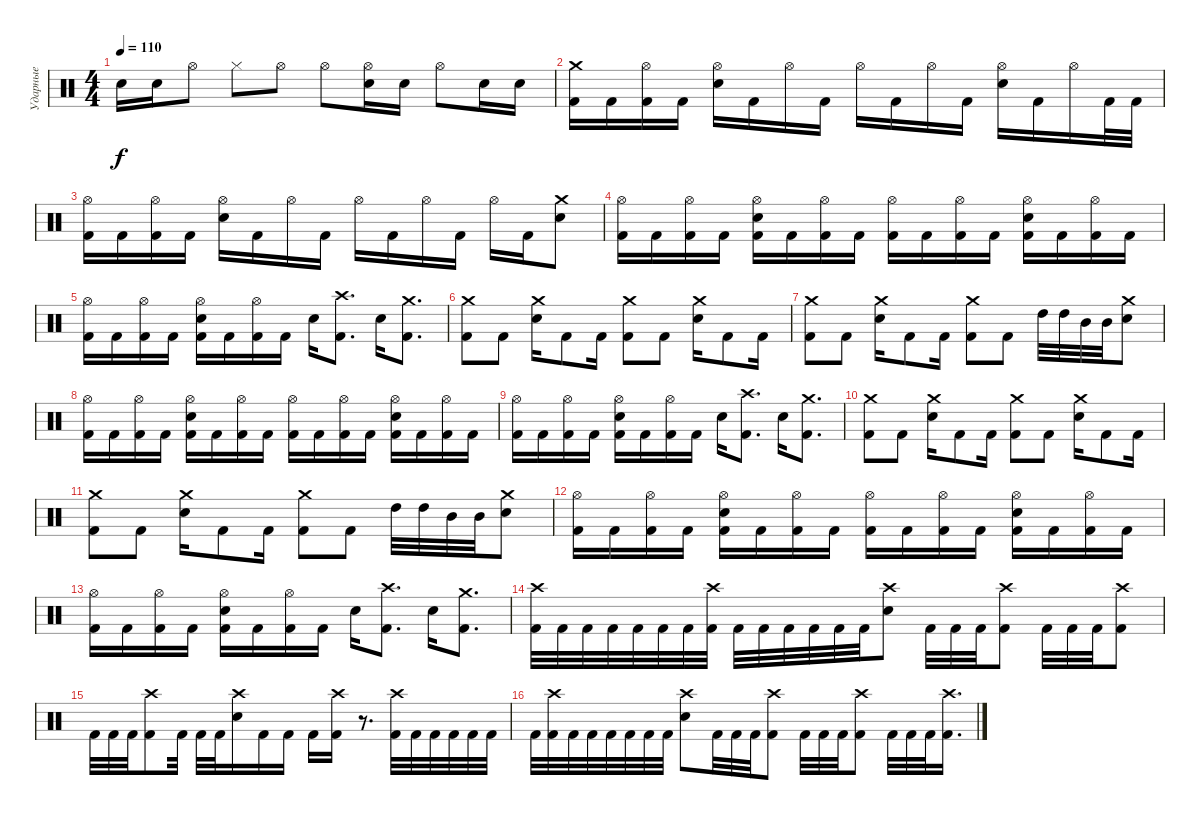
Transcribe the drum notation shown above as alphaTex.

\track ("Ударные" "Ударные") {instrument percussion}
\staff {score}
\articulation defaults
\ts (4 4)
\tempo 110
\clef neutral
\ks c "Electric Snare (hit)".16{dy f} "Electric Snare (hit)".16 "Hi-Hat (open)".8 "Hi-Hat (closed)".8 "Hi-Hat (open)".8 "Hi-Hat (open)".8
("Hi-Hat (open)" "Electric Snare (hit)").16 "Electric Snare (hit)".16 "Hi-Hat (open)".8 "Electric Snare (hit)".16 "Electric Snare (hit)".16 |
("Kick (hit) 2" "Crash medium (hit)").16 "Kick (hit) 2".16 ("Kick (hit) 2" "Hi-Hat (open)").16 "Kick (hit) 2".16 ("Electric Snare (hit)" "Hi-Hat (open)").16 "Kick (hit) 2".16 "Hi-Hat (open)".16 "Kick (hit) 2".16 "Hi-Hat (open)".16 "Kick (hit) 2".16 "Hi-Hat (open)".16 "Kick (hit) 2".16 ("Electric Snare (hit)" "Hi-Hat (open)").16 "Kick (hit) 2".16 "Hi-Hat (open)".16 "Kick (hit) 2".32 "Kick (hit) 2".32 |
("Kick (hit) 2" "Hi-Hat (open)").16 "Kick (hit) 2".16 ("Kick (hit) 2" "Hi-Hat (open)").16 "Kick (hit) 2".16 ("Electric Snare (hit)" "Hi-Hat (open)").16 "Kick (hit) 2".16 "Hi-Hat (open)".16 "Kick (hit) 2".16 "Hi-Hat (open)".16 "Kick (hit) 2".16 "Hi-Hat (open)".16 "Kick (hit) 2".16 "Hi-Hat (open)".16 "Kick (hit) 2".16 ("Electric Snare (hit)" "Crash medium (hit)").8 |
("Kick (hit) 2" "Hi-Hat (open)").16 "Kick (hit) 2".16 ("Kick (hit) 2" "Hi-Hat (open)").16 "Kick (hit) 2".16 ("Kick (hit) 2" "Hi-Hat (open)" "Electric Snare (hit)").16 "Kick (hit) 2".16 ("Kick (hit) 2" "Hi-Hat (open)").16 "Kick (hit) 2".16 ("Kick (hit) 2" "Hi-Hat (open)").16 "Kick (hit) 2".16 ("Kick (hit) 2" "Hi-Hat (open)").16 "Kick (hit) 2".16 ("Kick (hit) 2" "Hi-Hat (open)" "Electric Snare (hit)").16 "Kick (hit) 2".16 ("Kick (hit) 2" "Hi-Hat (open)").16 "Kick (hit) 2".16 |
("Kick (hit) 2" "Hi-Hat (open)").16 "Kick (hit) 2".16 ("Kick (hit) 2" "Hi-Hat (open)").16 "Kick (hit) 2".16 ("Kick (hit) 2" "Hi-Hat (open)" "Electric Snare (hit)").16 "Kick (hit) 2".16 ("Kick (hit) 2" "Hi-Hat (open)").16 "Kick (hit) 2".16 "Electric Snare (hit)".16 ("Kick (hit) 2" "Crash high (hit)").8{d} "Electric Snare (hit)".16 ("Kick (hit) 2" "Crash medium (hit)").8{d} |
("Kick (hit) 2" "Crash medium (hit)").8 "Kick (hit) 2".8 ("Electric Snare (hit)" "Crash medium (hit)").16 "Kick (hit) 2".8 "Kick (hit) 2".16 ("Kick (hit) 2" "Crash medium (hit)").8 "Kick (hit) 2".8 ("Electric Snare (hit)" "Crash medium (hit)").16 "Kick (hit) 2".8 "Kick (hit) 2".16 |
("Kick (hit) 2" "Crash medium (hit)").8 "Kick (hit) 2".8 ("Electric Snare (hit)" "Crash medium (hit)").16 "Kick (hit) 2".8 "Kick (hit) 2".16 ("Kick (hit) 2" "Crash medium (hit)").8 "Kick (hit) 2".8 "High Tom (hit)".32 "High Tom (hit)".32 "Mid Tom (hit)".32 "Mid Tom (hit)".32 ("Electric Snare (hit)" "Crash medium (hit)").8 |
("Kick (hit) 2" "Hi-Hat (open)").16 "Kick (hit) 2".16 ("Kick (hit) 2" "Hi-Hat (open)").16 "Kick (hit) 2".16 ("Kick (hit) 2" "Hi-Hat (open)" "Electric Snare (hit)").16 "Kick (hit) 2".16 ("Kick (hit) 2" "Hi-Hat (open)").16 "Kick (hit) 2".16 ("Kick (hit) 2" "Hi-Hat (open)").16 "Kick (hit) 2".16 ("Kick (hit) 2" "Hi-Hat (open)").16 "Kick (hit) 2".16 ("Kick (hit) 2" "Hi-Hat (open)" "Electric Snare (hit)").16 "Kick (hit) 2".16 ("Kick (hit) 2" "Hi-Hat (open)").16 "Kick (hit) 2".16 |
("Kick (hit) 2" "Hi-Hat (open)").16 "Kick (hit) 2".16 ("Kick (hit) 2" "Hi-Hat (open)").16 "Kick (hit) 2".16 ("Kick (hit) 2" "Hi-Hat (open)" "Electric Snare (hit)").16 "Kick (hit) 2".16 ("Kick (hit) 2" "Hi-Hat (open)").16 "Kick (hit) 2".16 "Electric Snare (hit)".16 ("Kick (hit) 2" "Crash high (hit)").8{d} "Electric Snare (hit)".16 ("Kick (hit) 2" "Crash medium (hit)").8{d} |
("Kick (hit) 2" "Crash medium (hit)").8 "Kick (hit) 2".8 ("Electric Snare (hit)" "Crash medium (hit)").16 "Kick (hit) 2".8 "Kick (hit) 2".16 ("Kick (hit) 2" "Crash medium (hit)").8 "Kick (hit) 2".8 ("Electric Snare (hit)" "Crash medium (hit)").16 "Kick (hit) 2".8 "Kick (hit) 2".16 |
("Kick (hit) 2" "Crash medium (hit)").8 "Kick (hit) 2".8 ("Electric Snare (hit)" "Crash medium (hit)").16 "Kick (hit) 2".8 "Kick (hit) 2".16 ("Kick (hit) 2" "Crash medium (hit)").8 "Kick (hit) 2".8 "High Tom (hit)".32 "High Tom (hit)".32 "Mid Tom (hit)".32 "Mid Tom (hit)".32 ("Electric Snare (hit)" "Crash medium (hit)").8 |
("Kick (hit) 2" "Hi-Hat (open)").16 "Kick (hit) 2".16 ("Kick (hit) 2" "Hi-Hat (open)").16 "Kick (hit) 2".16 ("Kick (hit) 2" "Hi-Hat (open)" "Electric Snare (hit)").16 "Kick (hit) 2".16 ("Kick (hit) 2" "Hi-Hat (open)").16 "Kick (hit) 2".16 ("Kick (hit) 2" "Hi-Hat (open)").16 "Kick (hit) 2".16 ("Kick (hit) 2" "Hi-Hat (open)").16 "Kick (hit) 2".16 ("Kick (hit) 2" "Hi-Hat (open)" "Electric Snare (hit)").16 "Kick (hit) 2".16 ("Kick (hit) 2" "Hi-Hat (open)").16 "Kick (hit) 2".16 |
("Kick (hit) 2" "Hi-Hat (open)").16 "Kick (hit) 2".16 ("Kick (hit) 2" "Hi-Hat (open)").16 "Kick (hit) 2".16 ("Kick (hit) 2" "Hi-Hat (open)" "Electric Snare (hit)").16 "Kick (hit) 2".16 ("Kick (hit) 2" "Hi-Hat (open)").16 "Kick (hit) 2".16 "Electric Snare (hit)".16 ("Kick (hit) 2" "Crash high (hit)").8{d} "Electric Snare (hit)".16 ("Kick (hit) 2" "Crash medium (hit)").8{d} |
("Kick (hit) 2" "Crash high (hit)").32 "Kick (hit) 2".32 "Kick (hit) 2".32 "Kick (hit) 2".32 "Kick (hit) 2".32 "Kick (hit) 2".32 "Kick (hit) 2".32 ("Kick (hit) 2" "Crash high (hit)").32 "Kick (hit) 2".32 "Kick (hit) 2".32 "Kick (hit) 2".32 "Kick (hit) 2".32 "Kick (hit) 2".32 "Kick (hit) 2".32 ("Electric Snare (hit)" "Crash high (hit)").8 "Kick (hit) 2".32 "Kick (hit) 2".32 "Kick (hit) 2".32 ("Crash high (hit)" "Kick (hit) 2").8 "Kick (hit) 2".32 "Kick (hit) 2".32 "Kick (hit) 2".32 ("Kick (hit) 2" "Crash high (hit)").8 |
"Kick (hit) 2".32 "Kick (hit) 2".32 "Kick (hit) 2".32 ("Crash high (hit)" "Kick (hit) 2").8 "Kick (hit) 2".32 "Kick (hit) 2".32 "Kick (hit) 2".32 ("Electric Snare (hit)" "Crash high (hit)").16 "Kick (hit) 2".16 "Kick (hit) 2".16 "Kick (hit) 2".16 ("Kick (hit) 2" "Crash high (hit)").16 r.8{d} ("Kick (hit) 2" "Crash high (hit)").32 "Kick (hit) 2".32 "Kick (hit) 2".32 "Kick (hit) 2".32 "Kick (hit) 2".32 "Kick (hit) 2".32 |
"Kick (hit) 2".32 ("Kick (hit) 2" "Crash high (hit)").32 "Kick (hit) 2".32 "Kick (hit) 2".32 "Kick (hit) 2".32 "Kick (hit) 2".32 "Kick (hit) 2".32 "Kick (hit) 2".32 ("Electric Snare (hit)" "Crash high (hit)").8 "Kick (hit) 2".32 "Kick (hit) 2".32 "Kick (hit) 2".32 ("Crash high (hit)" "Kick (hit) 2").8 "Kick (hit) 2".32 "Kick (hit) 2".32 "Kick (hit) 2".32 ("Kick (hit) 2" "Crash high (hit)").8 "Kick (hit) 2".32 "Kick (hit) 2".32 "Kick (hit) 2".32 ("Crash high (hit)" "Kick (hit) 2").16{d}
